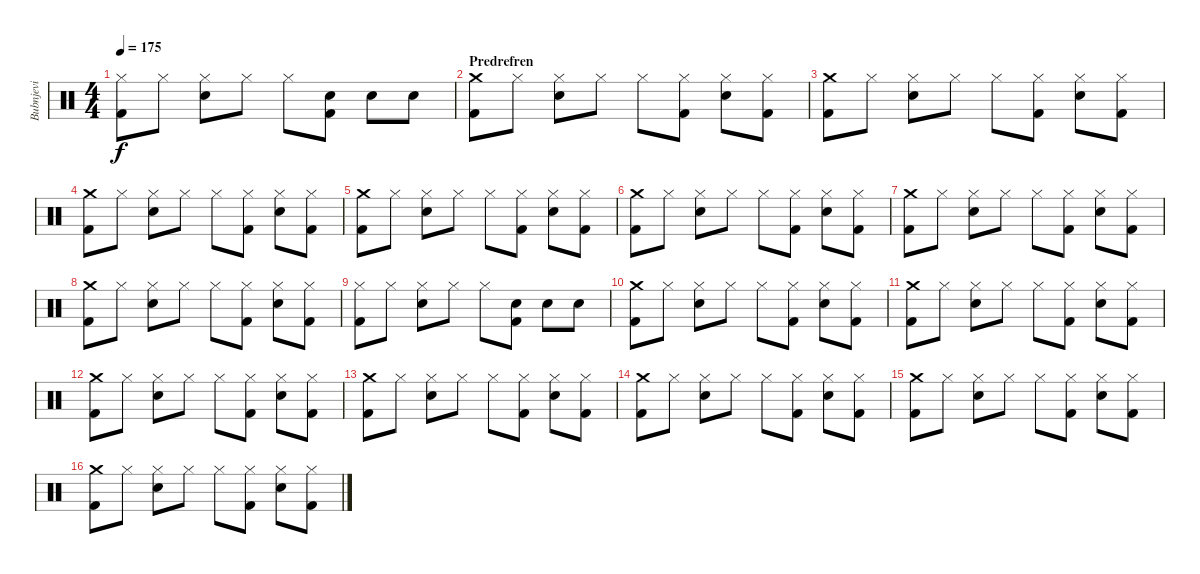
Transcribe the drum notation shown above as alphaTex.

\track ("Bubnjevi" "Bubnjevi") {instrument percussion}
\staff {score}
\articulation defaults
\ts (4 4)
\tempo 175
\clef neutral
\ks c
("Hi-Hat (closed)" "Kick (hit) 2").8{dy f} "Hi-Hat (closed)".8 ("Electric Snare (hit)" "Hi-Hat (closed)").8 "Hi-Hat (closed)".8 "Hi-Hat (closed)".8 ("Electric Snare (hit)" "Kick (hit) 2").8 "Electric Snare (hit)".8 "Electric Snare (hit)".8 |
\section ("" "Predrefren")
("Crash medium (hit)" "Kick (hit) 2").8 "Hi-Hat (closed)".8 ("Electric Snare (hit)" "Hi-Hat (closed)").8 "Hi-Hat (closed)".8 "Hi-Hat (closed)".8 ("Hi-Hat (closed)" "Kick (hit) 2").8 ("Electric Snare (hit)" "Hi-Hat (closed)").8 ("Hi-Hat (closed)" "Kick (hit) 2").8 |
("Crash medium (hit)" "Kick (hit) 2").8 "Hi-Hat (closed)".8 ("Electric Snare (hit)" "Hi-Hat (closed)").8 "Hi-Hat (closed)".8 "Hi-Hat (closed)".8 ("Hi-Hat (closed)" "Kick (hit) 2").8 ("Electric Snare (hit)" "Hi-Hat (closed)").8 ("Hi-Hat (closed)" "Kick (hit) 2").8 |
("Crash medium (hit)" "Kick (hit) 2").8 "Hi-Hat (closed)".8 ("Electric Snare (hit)" "Hi-Hat (closed)").8 "Hi-Hat (closed)".8 "Hi-Hat (closed)".8 ("Hi-Hat (closed)" "Kick (hit) 2").8 ("Electric Snare (hit)" "Hi-Hat (closed)").8 ("Hi-Hat (closed)" "Kick (hit) 2").8 |
("Crash medium (hit)" "Kick (hit) 2").8 "Hi-Hat (closed)".8 ("Electric Snare (hit)" "Hi-Hat (closed)").8 "Hi-Hat (closed)".8 "Hi-Hat (closed)".8 ("Hi-Hat (closed)" "Kick (hit) 2").8 ("Electric Snare (hit)" "Hi-Hat (closed)").8 ("Hi-Hat (closed)" "Kick (hit) 2").8 |
("Crash medium (hit)" "Kick (hit) 2").8 "Hi-Hat (closed)".8 ("Electric Snare (hit)" "Hi-Hat (closed)").8 "Hi-Hat (closed)".8 "Hi-Hat (closed)".8 ("Hi-Hat (closed)" "Kick (hit) 2").8 ("Electric Snare (hit)" "Hi-Hat (closed)").8 ("Hi-Hat (closed)" "Kick (hit) 2").8 |
("Crash medium (hit)" "Kick (hit) 2").8 "Hi-Hat (closed)".8 ("Electric Snare (hit)" "Hi-Hat (closed)").8 "Hi-Hat (closed)".8 "Hi-Hat (closed)".8 ("Hi-Hat (closed)" "Kick (hit) 2").8 ("Electric Snare (hit)" "Hi-Hat (closed)").8 ("Hi-Hat (closed)" "Kick (hit) 2").8 |
("Crash medium (hit)" "Kick (hit) 2").8 "Hi-Hat (closed)".8 ("Electric Snare (hit)" "Hi-Hat (closed)").8 "Hi-Hat (closed)".8 "Hi-Hat (closed)".8 ("Hi-Hat (closed)" "Kick (hit) 2").8 ("Electric Snare (hit)" "Hi-Hat (closed)").8 ("Hi-Hat (closed)" "Kick (hit) 2").8 |
("Hi-Hat (closed)" "Kick (hit) 2").8 "Hi-Hat (closed)".8 ("Electric Snare (hit)" "Hi-Hat (closed)").8 "Hi-Hat (closed)".8 "Hi-Hat (closed)".8 ("Electric Snare (hit)" "Kick (hit) 2").8 "Electric Snare (hit)".8 "Electric Snare (hit)".8 |
("Crash medium (hit)" "Kick (hit) 2").8 "Hi-Hat (closed)".8 ("Electric Snare (hit)" "Hi-Hat (closed)").8 "Hi-Hat (closed)".8 "Hi-Hat (closed)".8 ("Hi-Hat (closed)" "Kick (hit) 2").8 ("Electric Snare (hit)" "Hi-Hat (closed)").8 ("Hi-Hat (closed)" "Kick (hit) 2").8 |
("Crash medium (hit)" "Kick (hit) 2").8 "Hi-Hat (closed)".8 ("Electric Snare (hit)" "Hi-Hat (closed)").8 "Hi-Hat (closed)".8 "Hi-Hat (closed)".8 ("Hi-Hat (closed)" "Kick (hit) 2").8 ("Electric Snare (hit)" "Hi-Hat (closed)").8 ("Hi-Hat (closed)" "Kick (hit) 2").8 |
("Crash medium (hit)" "Kick (hit) 2").8 "Hi-Hat (closed)".8 ("Electric Snare (hit)" "Hi-Hat (closed)").8 "Hi-Hat (closed)".8 "Hi-Hat (closed)".8 ("Hi-Hat (closed)" "Kick (hit) 2").8 ("Electric Snare (hit)" "Hi-Hat (closed)").8 ("Hi-Hat (closed)" "Kick (hit) 2").8 |
("Crash medium (hit)" "Kick (hit) 2").8 "Hi-Hat (closed)".8 ("Electric Snare (hit)" "Hi-Hat (closed)").8 "Hi-Hat (closed)".8 "Hi-Hat (closed)".8 ("Hi-Hat (closed)" "Kick (hit) 2").8 ("Electric Snare (hit)" "Hi-Hat (closed)").8 ("Hi-Hat (closed)" "Kick (hit) 2").8 |
("Crash medium (hit)" "Kick (hit) 2").8 "Hi-Hat (closed)".8 ("Electric Snare (hit)" "Hi-Hat (closed)").8 "Hi-Hat (closed)".8 "Hi-Hat (closed)".8 ("Hi-Hat (closed)" "Kick (hit) 2").8 ("Electric Snare (hit)" "Hi-Hat (closed)").8 ("Hi-Hat (closed)" "Kick (hit) 2").8 |
("Crash medium (hit)" "Kick (hit) 2").8 "Hi-Hat (closed)".8 ("Electric Snare (hit)" "Hi-Hat (closed)").8 "Hi-Hat (closed)".8 "Hi-Hat (closed)".8 ("Hi-Hat (closed)" "Kick (hit) 2").8 ("Electric Snare (hit)" "Hi-Hat (closed)").8 ("Hi-Hat (closed)" "Kick (hit) 2").8 |
("Crash medium (hit)" "Kick (hit) 2").8 "Hi-Hat (closed)".8 ("Electric Snare (hit)" "Hi-Hat (closed)").8 "Hi-Hat (closed)".8 "Hi-Hat (closed)".8 ("Hi-Hat (closed)" "Kick (hit) 2").8 ("Electric Snare (hit)" "Hi-Hat (closed)").8 ("Hi-Hat (closed)" "Kick (hit) 2").8
